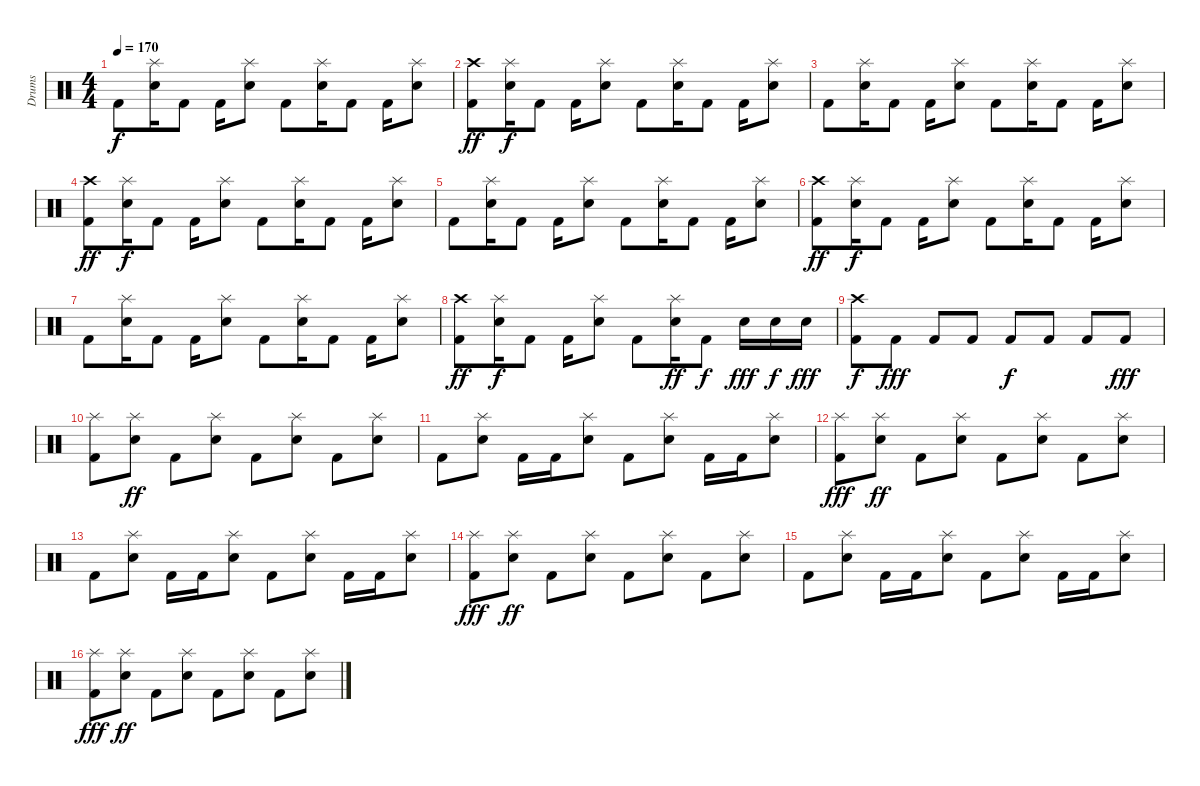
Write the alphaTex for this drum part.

\track ("Drums" "Drums") {instrument percussion}
\staff {score}
\articulation defaults
\ts (4 4)
\tempo 170
\clef neutral
\ks c "Kick (hit) 2".8{dy f}
("Electric Snare (hit)" "Splash (hit)").16 "Kick (hit) 2".8 "Kick (hit) 2".16 ("Electric Snare (hit)" "Splash (hit)").8 "Kick (hit) 2".8 ("Electric Snare (hit)" "Splash (hit)").16 "Kick (hit) 2".8 "Kick (hit) 2".16 ("Electric Snare (hit)" "Splash (hit)").8 |
("Kick (hit) 2" "Crash high (hit)").8{dy ff} ("Electric Snare (hit)" "Splash (hit)").16{dy f} "Kick (hit) 2".8 "Kick (hit) 2".16 ("Electric Snare (hit)" "Splash (hit)").8 "Kick (hit) 2".8 ("Electric Snare (hit)" "Splash (hit)").16 "Kick (hit) 2".8 "Kick (hit) 2".16 ("Electric Snare (hit)" "Splash (hit)").8 |
"Kick (hit) 2".8 ("Electric Snare (hit)" "Splash (hit)").16 "Kick (hit) 2".8 "Kick (hit) 2".16 ("Electric Snare (hit)" "Splash (hit)").8 "Kick (hit) 2".8 ("Electric Snare (hit)" "Splash (hit)").16 "Kick (hit) 2".8 "Kick (hit) 2".16 ("Electric Snare (hit)" "Splash (hit)").8 |
("Kick (hit) 2" "Crash high (hit)").8{dy ff} ("Electric Snare (hit)" "Splash (hit)").16{dy f} "Kick (hit) 2".8 "Kick (hit) 2".16 ("Electric Snare (hit)" "Splash (hit)").8 "Kick (hit) 2".8 ("Electric Snare (hit)" "Splash (hit)").16 "Kick (hit) 2".8 "Kick (hit) 2".16 ("Electric Snare (hit)" "Splash (hit)").8 |
"Kick (hit) 2".8 ("Electric Snare (hit)" "Splash (hit)").16 "Kick (hit) 2".8 "Kick (hit) 2".16 ("Electric Snare (hit)" "Splash (hit)").8 "Kick (hit) 2".8 ("Electric Snare (hit)" "Splash (hit)").16 "Kick (hit) 2".8 "Kick (hit) 2".16 ("Electric Snare (hit)" "Splash (hit)").8 |
("Kick (hit) 2" "Crash high (hit)").8{dy ff} ("Electric Snare (hit)" "Splash (hit)").16{dy f} "Kick (hit) 2".8 "Kick (hit) 2".16 ("Electric Snare (hit)" "Splash (hit)").8 "Kick (hit) 2".8 ("Electric Snare (hit)" "Splash (hit)").16 "Kick (hit) 2".8 "Kick (hit) 2".16 ("Electric Snare (hit)" "Splash (hit)").8 |
"Kick (hit) 2".8 ("Electric Snare (hit)" "Splash (hit)").16 "Kick (hit) 2".8 "Kick (hit) 2".16 ("Electric Snare (hit)" "Splash (hit)").8 "Kick (hit) 2".8 ("Electric Snare (hit)" "Splash (hit)").16 "Kick (hit) 2".8 "Kick (hit) 2".16 ("Electric Snare (hit)" "Splash (hit)").8 |
("Kick (hit) 2" "Crash high (hit)").8{dy ff} ("Electric Snare (hit)" "Splash (hit)").16{dy f} "Kick (hit) 2".8 "Kick (hit) 2".16 ("Electric Snare (hit)" "Splash (hit)").8 "Kick (hit) 2".8 ("Electric Snare (hit)" "Splash (hit)").16{dy ff} "Kick (hit) 2".8{dy f} "Electric Snare (hit)".16{dy fff} "Electric Snare (hit)".16{dy f} "Electric Snare (hit)".16{dy fff} |
("Kick (hit) 2" "Crash high (hit)").8{dy f} "Kick (hit) 2".8{dy fff} "Kick (hit) 2".8 "Kick (hit) 2".8 "Kick (hit) 2".8{dy f} "Kick (hit) 2".8 "Kick (hit) 2".8 "Kick (hit) 2".8{dy fff} |
("Kick (hit) 2" "Splash (hit)").8 ("Electric Snare (hit)" "Splash (hit)").8{dy ff} "Kick (hit) 2".8 ("Electric Snare (hit)" "Splash (hit)").8 "Kick (hit) 2".8 ("Electric Snare (hit)" "Splash (hit)").8 "Kick (hit) 2".8 ("Electric Snare (hit)" "Splash (hit)").8 |
"Kick (hit) 2".8 ("Electric Snare (hit)" "Splash (hit)").8 "Kick (hit) 2".16 "Kick (hit) 2".16 ("Electric Snare (hit)" "Splash (hit)").8 "Kick (hit) 2".8 ("Electric Snare (hit)" "Splash (hit)").8 "Kick (hit) 2".16 "Kick (hit) 2".16 ("Electric Snare (hit)" "Splash (hit)").8 |
("Kick (hit) 2" "Splash (hit)").8{dy fff} ("Electric Snare (hit)" "Splash (hit)").8{dy ff} "Kick (hit) 2".8 ("Electric Snare (hit)" "Splash (hit)").8 "Kick (hit) 2".8 ("Electric Snare (hit)" "Splash (hit)").8 "Kick (hit) 2".8 ("Electric Snare (hit)" "Splash (hit)").8 |
"Kick (hit) 2".8 ("Electric Snare (hit)" "Splash (hit)").8 "Kick (hit) 2".16 "Kick (hit) 2".16 ("Electric Snare (hit)" "Splash (hit)").8 "Kick (hit) 2".8 ("Electric Snare (hit)" "Splash (hit)").8 "Kick (hit) 2".16 "Kick (hit) 2".16 ("Electric Snare (hit)" "Splash (hit)").8 |
("Kick (hit) 2" "Splash (hit)").8{dy fff} ("Electric Snare (hit)" "Splash (hit)").8{dy ff} "Kick (hit) 2".8 ("Electric Snare (hit)" "Splash (hit)").8 "Kick (hit) 2".8 ("Electric Snare (hit)" "Splash (hit)").8 "Kick (hit) 2".8 ("Electric Snare (hit)" "Splash (hit)").8 |
"Kick (hit) 2".8 ("Electric Snare (hit)" "Splash (hit)").8 "Kick (hit) 2".16 "Kick (hit) 2".16 ("Electric Snare (hit)" "Splash (hit)").8 "Kick (hit) 2".8 ("Electric Snare (hit)" "Splash (hit)").8 "Kick (hit) 2".16 "Kick (hit) 2".16 ("Electric Snare (hit)" "Splash (hit)").8 |
("Kick (hit) 2" "Splash (hit)").8{dy fff} ("Electric Snare (hit)" "Splash (hit)").8{dy ff} "Kick (hit) 2".8 ("Electric Snare (hit)" "Splash (hit)").8 "Kick (hit) 2".8 ("Electric Snare (hit)" "Splash (hit)").8 "Kick (hit) 2".8 ("Electric Snare (hit)" "Splash (hit)").8
